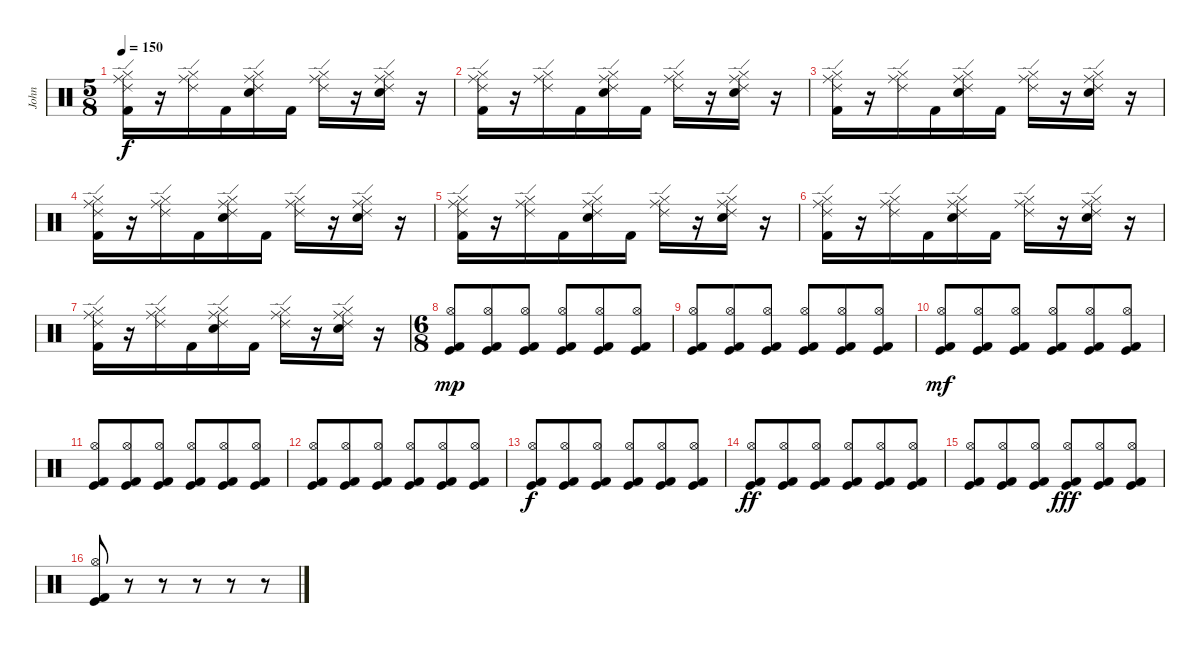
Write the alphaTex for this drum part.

\track ("John" "John") {instrument percussion}
\staff {score}
\articulation defaults
\ts (5 8)
\tempo 150
\clef neutral
\ks c
("Ride (middle)" "Kick (hit) 2" "Ride (edge) 2" "Hi-Hat (closed)").16{dy f} r.16 ("Ride (middle)" "Ride (edge) 2" "Hi-Hat (closed)").16 "Kick (hit) 2".16 ("Ride (middle)" "Electric Snare (hit)" "Ride (edge) 2" "Hi-Hat (closed)").16 "Kick (hit) 2".16 ("Ride (middle)" "Ride (edge) 2" "Hi-Hat (closed)").16 r.16 ("Ride (middle)" "Electric Snare (hit)" "Ride (edge) 2" "Hi-Hat (closed)").16 r.16 |
("Ride (middle)" "Kick (hit) 2" "Ride (edge) 2" "Hi-Hat (closed)").16 r.16 ("Ride (middle)" "Ride (edge) 2" "Hi-Hat (closed)").16 "Kick (hit) 2".16 ("Ride (middle)" "Electric Snare (hit)" "Ride (edge) 2" "Hi-Hat (closed)").16 "Kick (hit) 2".16 ("Ride (middle)" "Ride (edge) 2" "Hi-Hat (closed)").16 r.16 ("Ride (middle)" "Electric Snare (hit)" "Ride (edge) 2" "Hi-Hat (closed)").16 r.16 |
("Ride (middle)" "Kick (hit) 2" "Ride (edge) 2" "Hi-Hat (closed)").16 r.16 ("Ride (middle)" "Ride (edge) 2" "Hi-Hat (closed)").16 "Kick (hit) 2".16 ("Ride (middle)" "Electric Snare (hit)" "Ride (edge) 2" "Hi-Hat (closed)").16 "Kick (hit) 2".16 ("Ride (middle)" "Ride (edge) 2" "Hi-Hat (closed)").16 r.16 ("Ride (middle)" "Electric Snare (hit)" "Ride (edge) 2" "Hi-Hat (closed)").16 r.16 |
("Ride (middle)" "Kick (hit) 2" "Ride (edge) 2" "Hi-Hat (closed)").16 r.16 ("Ride (middle)" "Ride (edge) 2" "Hi-Hat (closed)").16 "Kick (hit) 2".16 ("Ride (middle)" "Electric Snare (hit)" "Ride (edge) 2" "Hi-Hat (closed)").16 "Kick (hit) 2".16 ("Ride (middle)" "Ride (edge) 2" "Hi-Hat (closed)").16 r.16 ("Ride (middle)" "Electric Snare (hit)" "Ride (edge) 2" "Hi-Hat (closed)").16 r.16 |
("Ride (middle)" "Kick (hit) 2" "Ride (edge) 2" "Hi-Hat (closed)").16 r.16 ("Ride (middle)" "Ride (edge) 2" "Hi-Hat (closed)").16 "Kick (hit) 2".16 ("Ride (middle)" "Electric Snare (hit)" "Ride (edge) 2" "Hi-Hat (closed)").16 "Kick (hit) 2".16 ("Ride (middle)" "Ride (edge) 2" "Hi-Hat (closed)").16 r.16 ("Ride (middle)" "Electric Snare (hit)" "Ride (edge) 2" "Hi-Hat (closed)").16 r.16 |
("Ride (middle)" "Kick (hit) 2" "Ride (edge) 2" "Hi-Hat (closed)").16 r.16 ("Ride (middle)" "Ride (edge) 2" "Hi-Hat (closed)").16 "Kick (hit) 2".16 ("Ride (middle)" "Electric Snare (hit)" "Ride (edge) 2" "Hi-Hat (closed)").16 "Kick (hit) 2".16 ("Ride (middle)" "Ride (edge) 2" "Hi-Hat (closed)").16 r.16 ("Ride (middle)" "Electric Snare (hit)" "Ride (edge) 2" "Hi-Hat (closed)").16 r.16 |
("Ride (middle)" "Kick (hit) 2" "Ride (edge) 2" "Hi-Hat (closed)").16 r.16 ("Ride (middle)" "Ride (edge) 2" "Hi-Hat (closed)").16 "Kick (hit) 2".16 ("Ride (middle)" "Electric Snare (hit)" "Ride (edge) 2" "Hi-Hat (closed)").16 "Kick (hit) 2".16 ("Ride (middle)" "Ride (edge) 2" "Hi-Hat (closed)").16 r.16 ("Ride (middle)" "Electric Snare (hit)" "Ride (edge) 2" "Hi-Hat (closed)").16 r.16 |
\ts (6 8)
("Hi-Hat (open)" "Kick (hit)" "Kick (hit) 2").8{dy mp} ("Hi-Hat (open)" "Kick (hit)" "Kick (hit) 2").8 ("Hi-Hat (open)" "Kick (hit)" "Kick (hit) 2").8 ("Hi-Hat (open)" "Kick (hit)" "Kick (hit) 2").8 ("Hi-Hat (open)" "Kick (hit)" "Kick (hit) 2").8 ("Hi-Hat (open)" "Kick (hit)" "Kick (hit) 2").8 |
("Hi-Hat (open)" "Kick (hit)" "Kick (hit) 2").8 ("Hi-Hat (open)" "Kick (hit)" "Kick (hit) 2").8 ("Hi-Hat (open)" "Kick (hit)" "Kick (hit) 2").8 ("Hi-Hat (open)" "Kick (hit)" "Kick (hit) 2").8 ("Hi-Hat (open)" "Kick (hit)" "Kick (hit) 2").8 ("Hi-Hat (open)" "Kick (hit)" "Kick (hit) 2").8 |
("Hi-Hat (open)" "Kick (hit)" "Kick (hit) 2").8{dy mf} ("Hi-Hat (open)" "Kick (hit)" "Kick (hit) 2").8 ("Hi-Hat (open)" "Kick (hit)" "Kick (hit) 2").8 ("Hi-Hat (open)" "Kick (hit)" "Kick (hit) 2").8 ("Hi-Hat (open)" "Kick (hit)" "Kick (hit) 2").8 ("Hi-Hat (open)" "Kick (hit)" "Kick (hit) 2").8 |
("Hi-Hat (open)" "Kick (hit)" "Kick (hit) 2").8 ("Hi-Hat (open)" "Kick (hit)" "Kick (hit) 2").8 ("Hi-Hat (open)" "Kick (hit)" "Kick (hit) 2").8 ("Hi-Hat (open)" "Kick (hit)" "Kick (hit) 2").8 ("Hi-Hat (open)" "Kick (hit)" "Kick (hit) 2").8 ("Hi-Hat (open)" "Kick (hit)" "Kick (hit) 2").8 |
("Hi-Hat (open)" "Kick (hit)" "Kick (hit) 2").8 ("Hi-Hat (open)" "Kick (hit)" "Kick (hit) 2").8 ("Hi-Hat (open)" "Kick (hit)" "Kick (hit) 2").8 ("Hi-Hat (open)" "Kick (hit)" "Kick (hit) 2").8 ("Hi-Hat (open)" "Kick (hit)" "Kick (hit) 2").8 ("Hi-Hat (open)" "Kick (hit)" "Kick (hit) 2").8 |
("Hi-Hat (open)" "Kick (hit)" "Kick (hit) 2").8{dy f} ("Hi-Hat (open)" "Kick (hit)" "Kick (hit) 2").8 ("Hi-Hat (open)" "Kick (hit)" "Kick (hit) 2").8 ("Hi-Hat (open)" "Kick (hit)" "Kick (hit) 2").8 ("Hi-Hat (open)" "Kick (hit)" "Kick (hit) 2").8 ("Hi-Hat (open)" "Kick (hit)" "Kick (hit) 2").8 |
("Hi-Hat (open)" "Kick (hit)" "Kick (hit) 2").8{dy ff} ("Hi-Hat (open)" "Kick (hit)" "Kick (hit) 2").8 ("Hi-Hat (open)" "Kick (hit)" "Kick (hit) 2").8 ("Hi-Hat (open)" "Kick (hit)" "Kick (hit) 2").8 ("Hi-Hat (open)" "Kick (hit)" "Kick (hit) 2").8 ("Hi-Hat (open)" "Kick (hit)" "Kick (hit) 2").8 |
("Hi-Hat (open)" "Kick (hit)" "Kick (hit) 2").8 ("Hi-Hat (open)" "Kick (hit)" "Kick (hit) 2").8 ("Hi-Hat (open)" "Kick (hit)" "Kick (hit) 2").8 ("Hi-Hat (open)" "Kick (hit)" "Kick (hit) 2").8{dy fff} ("Hi-Hat (open)" "Kick (hit)" "Kick (hit) 2").8 ("Hi-Hat (open)" "Kick (hit)" "Kick (hit) 2").8 |
("Hi-Hat (open)" "Kick (hit)" "Kick (hit) 2").8 r.8 r.8 r.8 r.8 r.8
